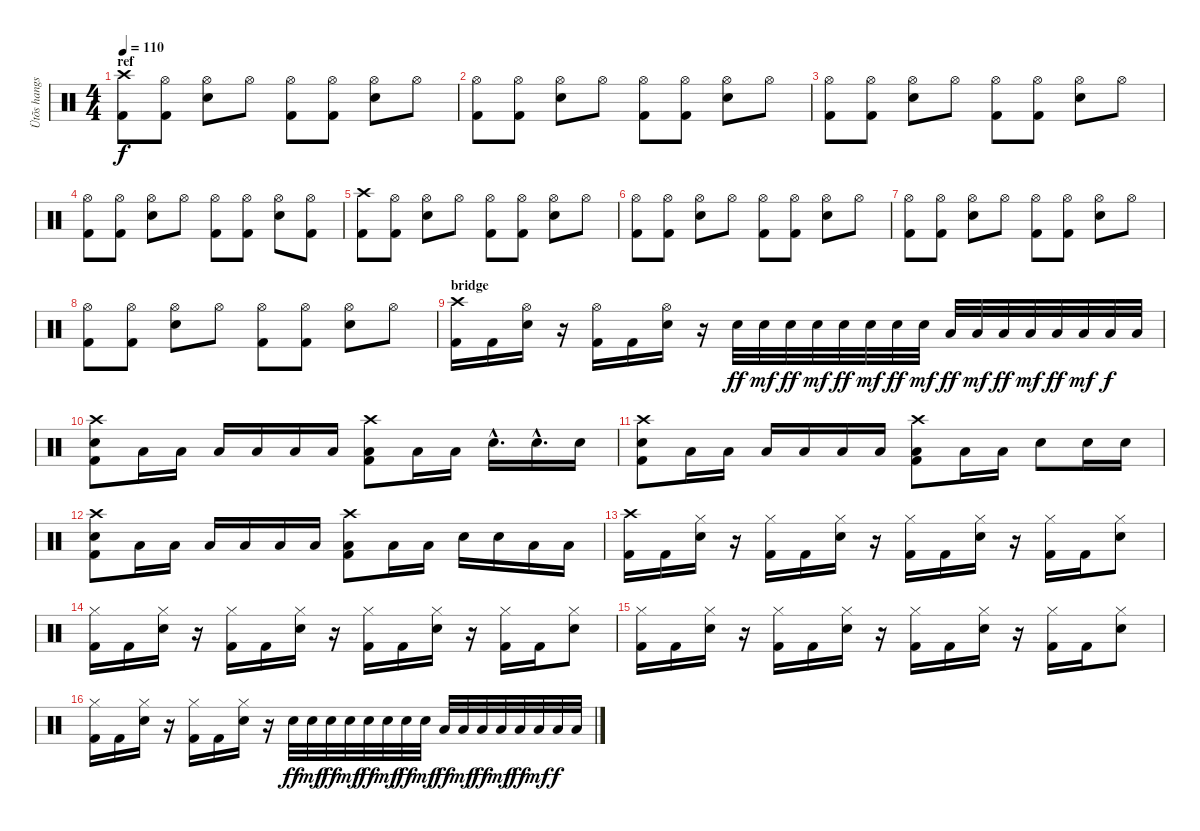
\track ("Ütõs hangszer" "Ütõs hangs") {instrument percussion}
\staff {score}
\articulation defaults
\ts (4 4)
\section ("" "ref")
\tempo 110
\clef neutral
\ks c
("Crash high (hit)" "Kick (hit) 2").8{dy f} ("Hi-Hat (open)" "Kick (hit) 2").8 ("Hi-Hat (open)" "Snare (hit) 2").8 "Hi-Hat (open)".8 ("Hi-Hat (open)" "Kick (hit) 2").8 ("Hi-Hat (open)" "Kick (hit) 2").8 ("Hi-Hat (open)" "Snare (hit) 2").8 "Hi-Hat (open)".8 |
("Hi-Hat (open)" "Kick (hit) 2").8 ("Hi-Hat (open)" "Kick (hit) 2").8 ("Hi-Hat (open)" "Snare (hit) 2").8 "Hi-Hat (open)".8 ("Hi-Hat (open)" "Kick (hit) 2").8 ("Hi-Hat (open)" "Kick (hit) 2").8 ("Hi-Hat (open)" "Snare (hit) 2").8 "Hi-Hat (open)".8 |
("Hi-Hat (open)" "Kick (hit) 2").8 ("Hi-Hat (open)" "Kick (hit) 2").8 ("Hi-Hat (open)" "Snare (hit) 2").8 "Hi-Hat (open)".8 ("Hi-Hat (open)" "Kick (hit) 2").8 ("Hi-Hat (open)" "Kick (hit) 2").8 ("Hi-Hat (open)" "Snare (hit) 2").8 "Hi-Hat (open)".8 |
("Hi-Hat (open)" "Kick (hit) 2").8 ("Hi-Hat (open)" "Kick (hit) 2").8 ("Hi-Hat (open)" "Snare (hit) 2").8 "Hi-Hat (open)".8 ("Hi-Hat (open)" "Kick (hit) 2").8 ("Hi-Hat (open)" "Kick (hit) 2").8 ("Hi-Hat (open)" "Snare (hit) 2").8 ("Hi-Hat (open)" "Kick (hit) 2").8 |
("Crash high (hit)" "Kick (hit) 2").8 ("Hi-Hat (open)" "Kick (hit) 2").8 ("Hi-Hat (open)" "Snare (hit) 2").8 "Hi-Hat (open)".8 ("Hi-Hat (open)" "Kick (hit) 2").8 ("Hi-Hat (open)" "Kick (hit) 2").8 ("Hi-Hat (open)" "Snare (hit) 2").8 "Hi-Hat (open)".8 |
("Hi-Hat (open)" "Kick (hit) 2").8 ("Hi-Hat (open)" "Kick (hit) 2").8 ("Hi-Hat (open)" "Snare (hit) 2").8 "Hi-Hat (open)".8 ("Hi-Hat (open)" "Kick (hit) 2").8 ("Hi-Hat (open)" "Kick (hit) 2").8 ("Hi-Hat (open)" "Snare (hit) 2").8 "Hi-Hat (open)".8 |
("Hi-Hat (open)" "Kick (hit) 2").8 ("Hi-Hat (open)" "Kick (hit) 2").8 ("Hi-Hat (open)" "Snare (hit) 2").8 "Hi-Hat (open)".8 ("Hi-Hat (open)" "Kick (hit) 2").8 ("Hi-Hat (open)" "Kick (hit) 2").8 ("Hi-Hat (open)" "Snare (hit) 2").8 "Hi-Hat (open)".8 |
("Hi-Hat (open)" "Kick (hit) 2").8 ("Hi-Hat (open)" "Kick (hit) 2").8 ("Hi-Hat (open)" "Snare (hit) 2").8 "Hi-Hat (open)".8 ("Hi-Hat (open)" "Kick (hit) 2").8 ("Hi-Hat (open)" "Kick (hit) 2").8 ("Hi-Hat (open)" "Snare (hit) 2").8 "Hi-Hat (open)".8 |
\section ("" "bridge")
("Crash high (hit)" "Kick (hit) 2").16 "Kick (hit) 2".16 ("Hi-Hat (open)" "Snare (hit) 2").16 r.16 ("Hi-Hat (open)" "Kick (hit) 2").16 "Kick (hit) 2".16 ("Hi-Hat (open)" "Snare (hit) 2").16 r.16 "Snare (hit) 2".32{dy ff} "Snare (hit) 2".32{dy mf} "Snare (hit) 2".32{dy ff} "Snare (hit) 2".32{dy mf} "Snare (hit) 2".32{dy ff} "Snare (hit) 2".32{dy mf} "Snare (hit) 2".32{dy ff} "Snare (hit) 2".32{dy mf} "Low Tom (hit)".32{dy ff} "Low Tom (hit)".32{dy mf} "Low Tom (hit)".32{dy ff} "Low Tom (hit)".32{dy mf} "Low Tom (hit)".32{dy ff} "Low Tom (hit)".32{dy mf} "Low Tom (hit)".32{dy f} "Low Tom (hit)".32 |
("Crash high (hit)" "Snare (hit) 2" "Kick (hit) 2").8 "Low Tom (hit)".16 "Low Tom (hit)".16 "Low Tom (hit)".16 "Low Tom (hit)".16 "Low Tom (hit)".16 "Low Floor Tom (hit)".16 ("Crash high (hit)" "Low Floor Tom (hit)" "Kick (hit) 2").8 "Low Tom (hit)".16 "Low Tom (hit)".16 "Snare (hit) 2"{hac}.16{d} "Snare (hit) 2"{hac}.16{d} "Snare (hit) 2".16 |
("Crash high (hit)" "Snare (hit) 2" "Kick (hit) 2").8 "Low Tom (hit)".16 "Low Tom (hit)".16 "Low Tom (hit)".16 "Low Tom (hit)".16 "Low Tom (hit)".16 "Low Floor Tom (hit)".16 ("Crash high (hit)" "Low Floor Tom (hit)" "Kick (hit) 2").8 "Low Tom (hit)".16 "Low Tom (hit)".16 "Snare (hit) 2".8 "Snare (hit) 2".16 "Snare (hit) 2".16 |
("Crash high (hit)" "Snare (hit) 2" "Kick (hit) 2").8 "Low Tom (hit)".16 "Low Tom (hit)".16 "Low Tom (hit)".16 "Low Tom (hit)".16 "Low Tom (hit)".16 "Low Floor Tom (hit)".16 ("Crash high (hit)" "Low Floor Tom (hit)" "Kick (hit) 2").8 "Low Tom (hit)".16 "Low Tom (hit)".16 "Snare (hit) 2".16 "Snare (hit) 2".16 "Low Tom (hit)".16 "Low Tom (hit)".16 |
("Crash high (hit)" "Kick (hit) 2").16 "Kick (hit) 2".16 ("Hi-Hat (closed)" "Snare (hit) 2").16 r.16 ("Hi-Hat (closed)" "Kick (hit) 2").16 "Kick (hit) 2".16 ("Hi-Hat (closed)" "Snare (hit) 2").16 r.16 ("Hi-Hat (closed)" "Kick (hit) 2").16 "Kick (hit) 2".16 ("Hi-Hat (closed)" "Snare (hit) 2").16 r.16 ("Hi-Hat (closed)" "Kick (hit) 2").16 "Kick (hit) 2".16 ("Hi-Hat (closed)" "Snare (hit) 2").8 |
("Hi-Hat (closed)" "Kick (hit) 2").16 "Kick (hit) 2".16 ("Hi-Hat (closed)" "Snare (hit) 2").16 r.16 ("Hi-Hat (closed)" "Kick (hit) 2").16 "Kick (hit) 2".16 ("Hi-Hat (closed)" "Snare (hit) 2").16 r.16 ("Hi-Hat (closed)" "Kick (hit) 2").16 "Kick (hit) 2".16 ("Hi-Hat (closed)" "Snare (hit) 2").16 r.16 ("Hi-Hat (closed)" "Kick (hit) 2").16 "Kick (hit) 2".16 ("Hi-Hat (closed)" "Snare (hit) 2").8 |
("Hi-Hat (closed)" "Kick (hit) 2").16 "Kick (hit) 2".16 ("Hi-Hat (closed)" "Snare (hit) 2").16 r.16 ("Hi-Hat (closed)" "Kick (hit) 2").16 "Kick (hit) 2".16 ("Hi-Hat (closed)" "Snare (hit) 2").16 r.16 ("Hi-Hat (closed)" "Kick (hit) 2").16 "Kick (hit) 2".16 ("Hi-Hat (closed)" "Snare (hit) 2").16 r.16 ("Hi-Hat (closed)" "Kick (hit) 2").16 "Kick (hit) 2".16 ("Hi-Hat (closed)" "Snare (hit) 2").8 |
("Hi-Hat (closed)" "Kick (hit) 2").16 "Kick (hit) 2".16 ("Hi-Hat (closed)" "Snare (hit) 2").16 r.16 ("Hi-Hat (closed)" "Kick (hit) 2").16 "Kick (hit) 2".16 ("Hi-Hat (closed)" "Snare (hit) 2").16 r.16 "Snare (hit) 2".32{dy ff} "Snare (hit) 2".32{dy mf} "Snare (hit) 2".32{dy ff} "Snare (hit) 2".32{dy mf} "Snare (hit) 2".32{dy ff} "Snare (hit) 2".32{dy mf} "Snare (hit) 2".32{dy ff} "Snare (hit) 2".32{dy mf} "Low Tom (hit)".32{dy ff} "Low Tom (hit)".32{dy mf} "Low Tom (hit)".32{dy ff} "Low Tom (hit)".32{dy mf} "Low Tom (hit)".32{dy ff} "Low Tom (hit)".32{dy mf} "Low Tom (hit)".32{dy f} "Low Tom (hit)".32
